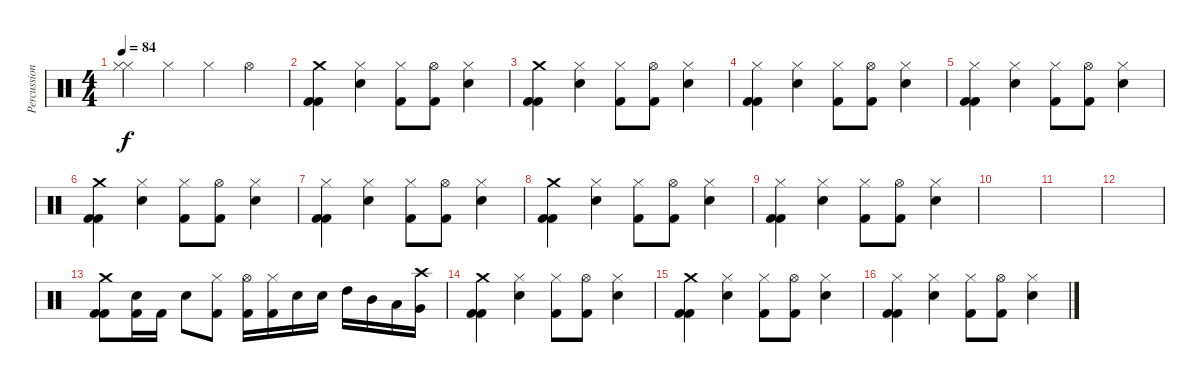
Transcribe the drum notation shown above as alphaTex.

\track ("Percussion" "Percussion") {instrument percussion}
\staff {score}
\articulation defaults
\ts (4 4)
\tempo 84
\clef neutral
\ks c
("Hi-Hat (closed)" "Hi-Hat (closed)").4{dy f} "Hi-Hat (closed)".4 "Hi-Hat (closed)".4 "Hi-Hat (open)".4 |
("Crash medium (hit)" "Kick (hit) 2" "Kick (hit) 2").4 ("Electric Snare (hit)" "Hi-Hat (closed)").4 ("Kick (hit) 2" "Hi-Hat (closed)").8 ("Kick (hit) 2" "Hi-Hat (open)").8 ("Electric Snare (hit)" "Hi-Hat (closed)").4 |
("Kick (hit) 2" "Kick (hit) 2" "Crash medium (hit)").4 ("Electric Snare (hit)" "Hi-Hat (closed)").4 ("Kick (hit) 2" "Hi-Hat (closed)").8 ("Kick (hit) 2" "Hi-Hat (open)").8 ("Electric Snare (hit)" "Hi-Hat (closed)").4 |
("Kick (hit) 2" "Kick (hit) 2" "Hi-Hat (closed)").4 ("Hi-Hat (closed)" "Electric Snare (hit)").4 ("Kick (hit) 2" "Hi-Hat (closed)").8 ("Kick (hit) 2" "Hi-Hat (open)").8 ("Electric Snare (hit)" "Hi-Hat (closed)").4 |
("Kick (hit) 2" "Kick (hit) 2" "Hi-Hat (closed)").4 ("Hi-Hat (closed)" "Electric Snare (hit)").4 ("Hi-Hat (closed)" "Kick (hit) 2").8 ("Hi-Hat (open)" "Kick (hit) 2").8 ("Hi-Hat (closed)" "Electric Snare (hit)").4 |
("Crash medium (hit)" "Kick (hit) 2" "Kick (hit) 2").4 ("Electric Snare (hit)" "Hi-Hat (closed)").4 ("Hi-Hat (closed)" "Kick (hit) 2").8 ("Hi-Hat (open)" "Kick (hit) 2").8 ("Hi-Hat (closed)" "Electric Snare (hit)").4 |
("Kick (hit) 2" "Kick (hit) 2" "Hi-Hat (closed)").4 ("Hi-Hat (closed)" "Electric Snare (hit)").4 ("Hi-Hat (closed)" "Kick (hit) 2").8 ("Hi-Hat (open)" "Kick (hit) 2").8 ("Electric Snare (hit)" "Hi-Hat (closed)").4 |
("Kick (hit) 2" "Crash medium (hit)" "Kick (hit) 2").4 ("Hi-Hat (closed)" "Electric Snare (hit)").4 ("Kick (hit) 2" "Hi-Hat (closed)").8 ("Hi-Hat (open)" "Kick (hit) 2").8 ("Hi-Hat (closed)" "Electric Snare (hit)").4 |
("Kick (hit) 2" "Kick (hit) 2" "Hi-Hat (closed)").4 ("Electric Snare (hit)" "Hi-Hat (closed)").4 ("Hi-Hat (closed)" "Kick (hit) 2").8 ("Hi-Hat (open)" "Kick (hit) 2").8 ("Hi-Hat (closed)" "Electric Snare (hit)").4 |
|
|
|
("Crash medium (hit)" "Kick (hit) 2" "Kick (hit) 2").8 ("Kick (hit) 2" "Electric Snare (hit)").16 "Kick (hit) 2".16 "Electric Snare (hit)".8 ("Kick (hit) 2" "Hi-Hat (closed)").8 ("Kick (hit) 2" "Hi-Hat (open)").16 ("Kick (hit) 2" "Hi-Hat (closed)").16 "Electric Snare (hit)".16 "Electric Snare (hit)".16 "High Tom (hit)".16 "Mid Tom (hit)".16 "Low Tom (hit)".16 ("Very Low Tom (hit)" "Crash high (hit)").16 |
("Crash medium (hit)" "Kick (hit) 2" "Kick (hit) 2").4 ("Electric Snare (hit)" "Hi-Hat (closed)").4 ("Kick (hit) 2" "Hi-Hat (closed)").8 ("Kick (hit) 2" "Hi-Hat (open)").8 ("Electric Snare (hit)" "Hi-Hat (closed)").4 |
("Kick (hit) 2" "Kick (hit) 2" "Crash medium (hit)").4 ("Electric Snare (hit)" "Hi-Hat (closed)").4 ("Kick (hit) 2" "Hi-Hat (closed)").8 ("Kick (hit) 2" "Hi-Hat (open)").8 ("Electric Snare (hit)" "Hi-Hat (closed)").4 |
("Kick (hit) 2" "Kick (hit) 2" "Hi-Hat (closed)").4 ("Hi-Hat (closed)" "Electric Snare (hit)").4 ("Kick (hit) 2" "Hi-Hat (closed)").8 ("Kick (hit) 2" "Hi-Hat (open)").8 ("Electric Snare (hit)" "Hi-Hat (closed)").4
